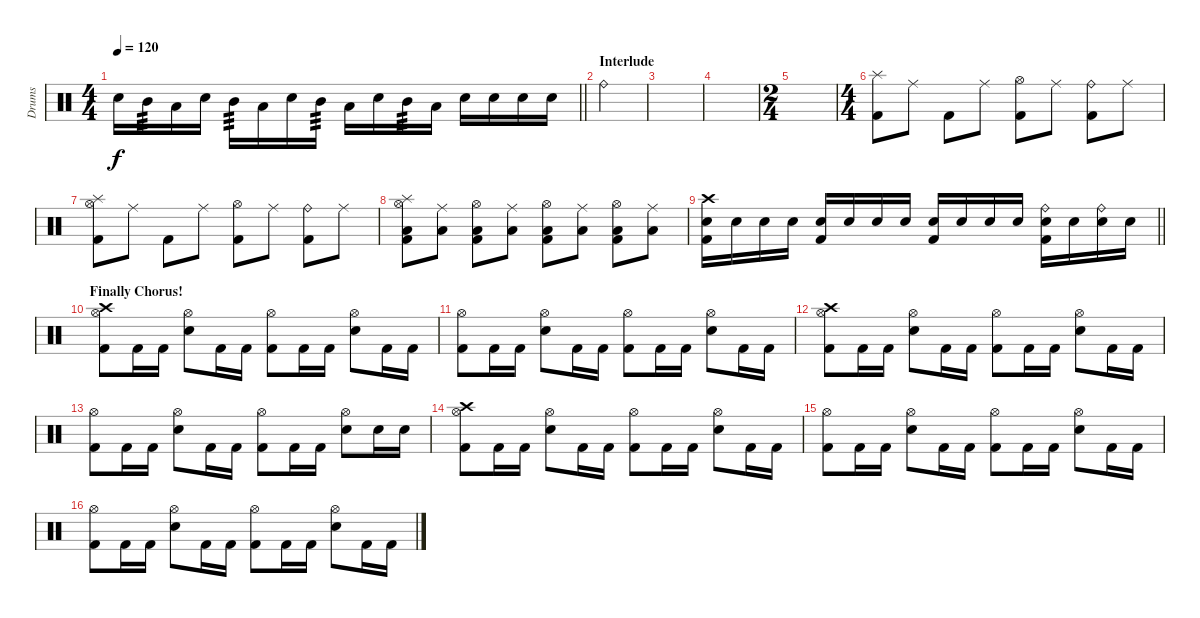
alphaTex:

\track ("Drums" "Drums") {instrument percussion}
\staff {score}
\articulation defaults
\ts (4 4)
\tempo 120
\clef neutral
\barLineRight lightlight
\ks c "Snare (hit) 2".16{dy f} "Mid Tom (hit)".16{tp 3} "Low Tom (hit)".16 "Snare (hit) 2".16 "Mid Tom (hit)".16{tp 3} "Low Tom (hit)".16 "Snare (hit) 2".16 "Mid Tom (hit)".16{tp 3} "Low Tom (hit)".16 "Snare (hit) 2".16 "Mid Tom (hit)".16{tp 3} "Low Tom (hit)".16 "Snare (hit) 2".16 "Snare (hit) 2".16 "Snare (hit) 2".16 "Snare (hit) 2".16
|
\section ("" "Interlude")
"Ride (bell)".4 |
|
|
\ts (2 4)
|
\ts (4 4)
("Splash (hit)" "Kick (hit) 2").8 "Ride (middle)".8 "Kick (hit) 2".8 "Ride (middle)".8 ("Hi-Hat (open)" "Kick (hit) 2").8 "Ride (middle)".8 ("Ride (bell)" "Kick (hit) 2").8 "Ride (middle)".8 |
("Splash (hit)" "Hi-Hat (open)" "Kick (hit) 2").8 "Ride (middle)".8 "Kick (hit) 2".8 "Ride (middle)".8 ("Hi-Hat (open)" "Kick (hit) 2").8 "Ride (middle)".8 ("Ride (bell)" "Kick (hit) 2").8 "Ride (middle)".8 |
("Splash (hit)" "Hi-Hat (open)" "Low Floor Tom (hit)" "Kick (hit) 2").8 ("Ride (middle)" "Low Floor Tom (hit)").8 ("Hi-Hat (open)" "Low Floor Tom (hit)" "Kick (hit) 2").8 ("Ride (middle)" "Low Floor Tom (hit)").8 ("Hi-Hat (open)" "Low Floor Tom (hit)" "Kick (hit) 2").8 ("Ride (middle)" "Low Floor Tom (hit)").8 ("Hi-Hat (open)" "Low Floor Tom (hit)" "Kick (hit) 2").8 ("Ride (middle)" "Low Floor Tom (hit)").8 |
\barLineRight lightlight
("Crash high (hit)" "Snare (hit) 2" "Kick (hit) 2").16 "Snare (hit) 2".16 "Snare (hit) 2".16 "Snare (hit) 2".16 ("Snare (hit) 2" "Kick (hit) 2").16 "Snare (hit) 2".16 "Snare (hit) 2".16 "Snare (hit) 2".16 ("Snare (hit) 2" "Kick (hit) 2").16 "Snare (hit) 2".16 "Snare (hit) 2".16 "Snare (hit) 2".16 ("Ride (bell)" "Snare (hit) 2" "Kick (hit) 2").16 "Snare (hit) 2".16 ("Ride (bell)" "Snare (hit) 2").16 "Snare (hit) 2".16 |
\section ("" "Finally Chorus!")
("Crash high (hit)" "Hi-Hat (open)" "Kick (hit) 2").8 "Kick (hit) 2".16 "Kick (hit) 2".16 ("Hi-Hat (open)" "Snare (hit) 2").8 "Kick (hit) 2".16 "Kick (hit) 2".16 ("Hi-Hat (open)" "Kick (hit) 2").8 "Kick (hit) 2".16 "Kick (hit) 2".16 ("Hi-Hat (open)" "Snare (hit) 2").8 "Kick (hit) 2".16 "Kick (hit) 2".16 |
("Hi-Hat (open)" "Kick (hit) 2").8 "Kick (hit) 2".16 "Kick (hit) 2".16 ("Hi-Hat (open)" "Snare (hit) 2").8 "Kick (hit) 2".16 "Kick (hit) 2".16 ("Hi-Hat (open)" "Kick (hit) 2").8 "Kick (hit) 2".16 "Kick (hit) 2".16 ("Hi-Hat (open)" "Snare (hit) 2").8 "Kick (hit) 2".16 "Kick (hit) 2".16 |
("Crash high (hit)" "Hi-Hat (open)" "Kick (hit) 2").8 "Kick (hit) 2".16 "Kick (hit) 2".16 ("Hi-Hat (open)" "Snare (hit) 2").8 "Kick (hit) 2".16 "Kick (hit) 2".16 ("Hi-Hat (open)" "Kick (hit) 2").8 "Kick (hit) 2".16 "Kick (hit) 2".16 ("Hi-Hat (open)" "Snare (hit) 2").8 "Kick (hit) 2".16 "Kick (hit) 2".16 |
("Hi-Hat (open)" "Kick (hit) 2").8 "Kick (hit) 2".16 "Kick (hit) 2".16 ("Hi-Hat (open)" "Snare (hit) 2").8 "Kick (hit) 2".16 "Kick (hit) 2".16 ("Hi-Hat (open)" "Kick (hit) 2").8 "Kick (hit) 2".16 "Kick (hit) 2".16 ("Hi-Hat (open)" "Snare (hit) 2").8 "Snare (hit) 2".16 "Snare (hit) 2".16 |
("Crash high (hit)" "Hi-Hat (open)" "Kick (hit) 2").8 "Kick (hit) 2".16 "Kick (hit) 2".16 ("Hi-Hat (open)" "Snare (hit) 2").8 "Kick (hit) 2".16 "Kick (hit) 2".16 ("Hi-Hat (open)" "Kick (hit) 2").8 "Kick (hit) 2".16 "Kick (hit) 2".16 ("Hi-Hat (open)" "Snare (hit) 2").8 "Kick (hit) 2".16 "Kick (hit) 2".16 |
("Hi-Hat (open)" "Kick (hit) 2").8 "Kick (hit) 2".16 "Kick (hit) 2".16 ("Hi-Hat (open)" "Snare (hit) 2").8 "Kick (hit) 2".16 "Kick (hit) 2".16 ("Hi-Hat (open)" "Kick (hit) 2").8 "Kick (hit) 2".16 "Kick (hit) 2".16 ("Hi-Hat (open)" "Snare (hit) 2").8 "Kick (hit) 2".16 "Kick (hit) 2".16 |
("Hi-Hat (open)" "Kick (hit) 2").8 "Kick (hit) 2".16 "Kick (hit) 2".16 ("Hi-Hat (open)" "Snare (hit) 2").8 "Kick (hit) 2".16 "Kick (hit) 2".16 ("Hi-Hat (open)" "Kick (hit) 2").8 "Kick (hit) 2".16 "Kick (hit) 2".16 ("Hi-Hat (open)" "Snare (hit) 2").8 "Kick (hit) 2".16 "Kick (hit) 2".16
